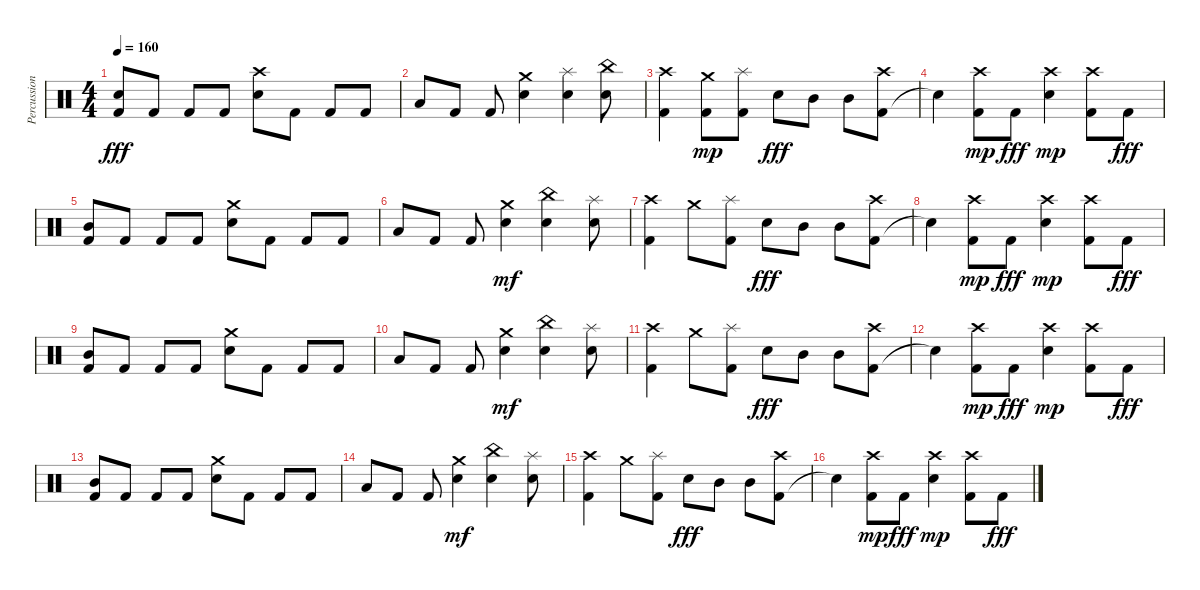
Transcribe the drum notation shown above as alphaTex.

\track ("Percussion" "Percussion") {instrument percussion}
\staff {score}
\articulation defaults
\ts (4 4)
\tempo 160
\clef neutral
\ks c
("Kick (hit) 2" "Electric Snare (hit)").8{dy fff} "Kick (hit) 2".8 "Kick (hit) 2".8 "Kick (hit) 2".8 ("Electric Snare (hit)" "Crash high (hit)").8 "Kick (hit) 2".8 "Kick (hit) 2".8 "Kick (hit) 2".8 |
"Low Tom (hit)".8 "Kick (hit) 2".8 "Kick (hit) 2".8 ("Electric Snare (hit)" "Crash medium (hit)").4 ("Electric Snare (hit)" "Splash (hit)").4 ("Electric Snare (hit)" "China (hit)").8 |
("Kick (hit) 2" "Crash high (hit)").4 ("Kick (hit) 2" "Crash medium (hit)").8{dy mp} ("Kick (hit) 2" "Splash (hit)").8 "Electric Snare (hit)".8{dy fff} "Mid Tom (hit)".8 "Mid Tom (hit)".8 ("Kick (hit) 2" "Crash high (hit)").8 |
"Snare (hit)"{t}.4 ("Kick (hit) 2" "Crash high (hit)").8{dy mp} "Kick (hit) 2".8{dy fff} ("Electric Snare (hit)" "Crash high (hit)").4{dy mp} ("Kick (hit) 2" "Crash high (hit)").8 "Kick (hit) 2".8{dy fff} |
("Kick (hit) 2" "Mid Tom (hit)").8 "Kick (hit) 2".8 "Kick (hit) 2".8 "Kick (hit) 2".8 ("Electric Snare (hit)" "Crash medium (hit)").8 "Kick (hit) 2".8 "Kick (hit) 2".8 "Kick (hit) 2".8 |
"Low Tom (hit)".8 "Kick (hit) 2".8 "Kick (hit) 2".8 ("Electric Snare (hit)" "Crash medium (hit)").4{dy mf} ("Electric Snare (hit)" "China (hit)").4 ("Electric Snare (hit)" "Splash (hit)").8 |
("Kick (hit) 2" "Crash high (hit)").4 "Crash medium (hit)".8 ("Kick (hit) 2" "Splash (hit)").8 "Electric Snare (hit)".8{dy fff} "Mid Tom (hit)".8 "Mid Tom (hit)".8 ("Kick (hit) 2" "Crash high (hit)").8 |
"Snare (hit)"{t}.4 ("Kick (hit) 2" "Crash high (hit)").8{dy mp} "Kick (hit) 2".8{dy fff} ("Electric Snare (hit)" "Crash high (hit)").4{dy mp} ("Kick (hit) 2" "Crash high (hit)").8 "Kick (hit) 2".8{dy fff} |
("Kick (hit) 2" "Mid Tom (hit)").8 "Kick (hit) 2".8 "Kick (hit) 2".8 "Kick (hit) 2".8 ("Electric Snare (hit)" "Crash medium (hit)").8 "Kick (hit) 2".8 "Kick (hit) 2".8 "Kick (hit) 2".8 |
"Low Tom (hit)".8 "Kick (hit) 2".8 "Kick (hit) 2".8 ("Electric Snare (hit)" "Crash medium (hit)").4{dy mf} ("Electric Snare (hit)" "China (hit)").4 ("Electric Snare (hit)" "Splash (hit)").8 |
("Kick (hit) 2" "Crash high (hit)").4 "Crash medium (hit)".8 ("Kick (hit) 2" "Splash (hit)").8 "Electric Snare (hit)".8{dy fff} "Mid Tom (hit)".8 "Mid Tom (hit)".8 ("Kick (hit) 2" "Crash high (hit)").8 |
"Snare (hit)"{t}.4 ("Kick (hit) 2" "Crash high (hit)").8{dy mp} "Kick (hit) 2".8{dy fff} ("Electric Snare (hit)" "Crash high (hit)").4{dy mp} ("Kick (hit) 2" "Crash high (hit)").8 "Kick (hit) 2".8{dy fff} |
("Kick (hit) 2" "Mid Tom (hit)").8 "Kick (hit) 2".8 "Kick (hit) 2".8 "Kick (hit) 2".8 ("Electric Snare (hit)" "Crash medium (hit)").8 "Kick (hit) 2".8 "Kick (hit) 2".8 "Kick (hit) 2".8 |
"Low Tom (hit)".8 "Kick (hit) 2".8 "Kick (hit) 2".8 ("Electric Snare (hit)" "Crash medium (hit)").4{dy mf} ("Electric Snare (hit)" "China (hit)").4 ("Electric Snare (hit)" "Splash (hit)").8 |
("Kick (hit) 2" "Crash high (hit)").4 "Crash medium (hit)".8 ("Kick (hit) 2" "Splash (hit)").8 "Electric Snare (hit)".8{dy fff} "Mid Tom (hit)".8 "Mid Tom (hit)".8 ("Kick (hit) 2" "Crash high (hit)").8 |
"Snare (hit)"{t}.4 ("Kick (hit) 2" "Crash high (hit)").8{dy mp} "Kick (hit) 2".8{dy fff} ("Electric Snare (hit)" "Crash high (hit)").4{dy mp} ("Kick (hit) 2" "Crash high (hit)").8 "Kick (hit) 2".8{dy fff}
